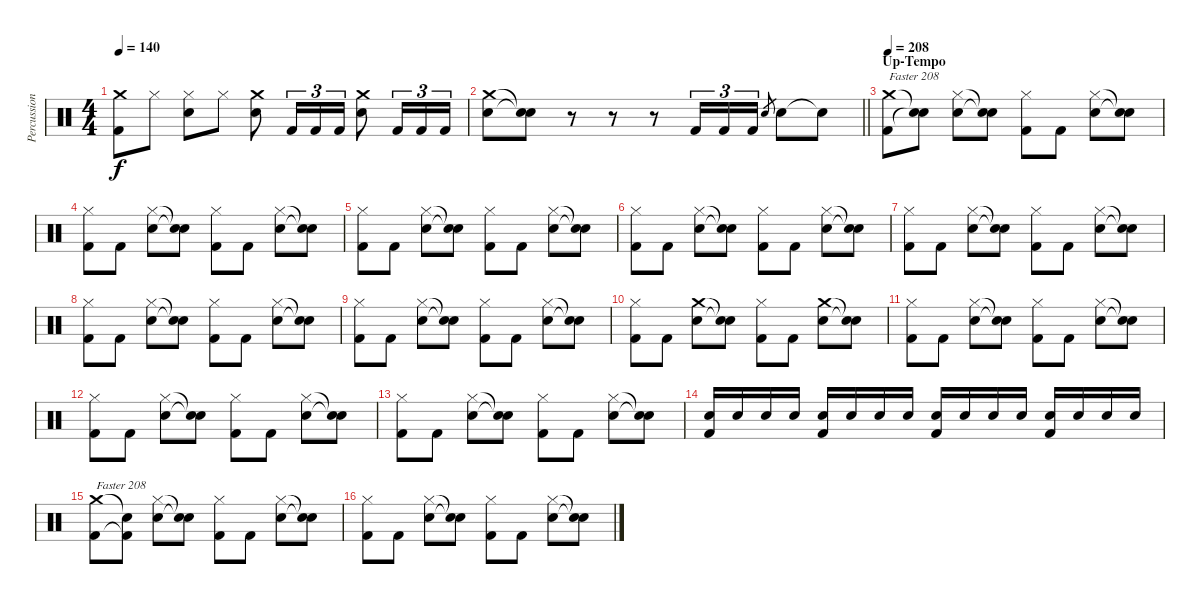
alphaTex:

\track ("Percussion" "Percussion") {instrument percussion}
\staff {score}
\articulation defaults
\ts (4 4)
\tempo 140
\clef neutral
\ks c
("Crash medium (hit)" "Kick (hit) 2").8{dy f} "Hi-Hat (closed)".8 ("Hi-Hat (closed)" "Snare (hit) 2").8 "Hi-Hat (closed)".8 ("Crash medium (hit)" "Snare (hit) 2").8 "Kick (hit) 2".16{tu (3 2)} "Kick (hit) 2".16{tu (3 2)} "Kick (hit) 2".16{tu (3 2)} ("Crash medium (hit)" "Snare (hit) 2").8 "Kick (hit) 2".16{tu (3 2)} "Kick (hit) 2".16{tu (3 2)} "Kick (hit) 2".16{tu (3 2)} |
\barLineRight lightlight
("Crash medium (hit)" "Snare (hit) 2").8 ("Snare (hit)"{t} "Snare (hit)"{t}).8 r.8 r.8 r.8 "Kick (hit) 2".16{tu (3 2)} "Kick (hit) 2".16{tu (3 2)} "Kick (hit) 2".16{tu (3 2)} "Snare (hit) 2".8{gr} "Snare (hit) 2".8 "Snare (hit)"{t}.8 |
\section ("" "Up-Tempo")
\tempo 208
("Crash medium (hit)" "Kick (hit) 2").8{txt "Faster 208"} ("Snare (hit)"{t} "Snare (hit)"{t}).8 ("Hi-Hat (closed)" "Snare (hit) 2").8 ("Snare (hit)"{t} "Snare (hit)"{t}).8 ("Hi-Hat (closed)" "Kick (hit) 2").8 "Kick (hit) 2".8 ("Hi-Hat (closed)" "Snare (hit) 2").8 ("Snare (hit)"{t} "Snare (hit)"{t}).8 |
("Hi-Hat (closed)" "Kick (hit) 2").8 "Kick (hit) 2".8 ("Hi-Hat (closed)" "Snare (hit) 2").8 ("Snare (hit)"{t} "Snare (hit)"{t}).8 ("Hi-Hat (closed)" "Kick (hit) 2").8 "Kick (hit) 2".8 ("Hi-Hat (closed)" "Snare (hit) 2").8 ("Snare (hit)"{t} "Snare (hit)"{t}).8 |
("Hi-Hat (closed)" "Kick (hit) 2").8 "Kick (hit) 2".8 ("Hi-Hat (closed)" "Snare (hit) 2").8 ("Snare (hit)"{t} "Snare (hit)"{t}).8 ("Hi-Hat (closed)" "Kick (hit) 2").8 "Kick (hit) 2".8 ("Hi-Hat (closed)" "Snare (hit) 2").8 ("Snare (hit)"{t} "Snare (hit)"{t}).8 |
("Hi-Hat (closed)" "Kick (hit) 2").8 "Kick (hit) 2".8 ("Hi-Hat (closed)" "Snare (hit) 2").8 ("Snare (hit)"{t} "Snare (hit)"{t}).8 ("Hi-Hat (closed)" "Kick (hit) 2").8 "Kick (hit) 2".8 ("Hi-Hat (closed)" "Snare (hit) 2").8 ("Snare (hit)"{t} "Snare (hit)"{t}).8 |
("Hi-Hat (closed)" "Kick (hit) 2").8 "Kick (hit) 2".8 ("Hi-Hat (closed)" "Snare (hit) 2").8 ("Snare (hit)"{t} "Snare (hit)"{t}).8 ("Hi-Hat (closed)" "Kick (hit) 2").8 "Kick (hit) 2".8 ("Hi-Hat (closed)" "Snare (hit) 2").8 ("Snare (hit)"{t} "Snare (hit)"{t}).8 |
("Hi-Hat (closed)" "Kick (hit) 2").8 "Kick (hit) 2".8 ("Hi-Hat (closed)" "Snare (hit) 2").8 ("Snare (hit)"{t} "Snare (hit)"{t}).8 ("Hi-Hat (closed)" "Kick (hit) 2").8 "Kick (hit) 2".8 ("Hi-Hat (closed)" "Snare (hit) 2").8 ("Snare (hit)"{t} "Snare (hit)"{t}).8 |
("Hi-Hat (closed)" "Kick (hit) 2").8 "Kick (hit) 2".8 ("Hi-Hat (closed)" "Snare (hit) 2").8 ("Snare (hit)"{t} "Snare (hit)"{t}).8 ("Hi-Hat (closed)" "Kick (hit) 2").8 "Kick (hit) 2".8 ("Hi-Hat (closed)" "Snare (hit) 2").8 ("Snare (hit)"{t} "Snare (hit)"{t}).8 |
("Hi-Hat (closed)" "Kick (hit) 2").8 "Kick (hit) 2".8 ("Crash medium (hit)" "Snare (hit) 2").8 ("Snare (hit)"{t} "Snare (hit)"{t}).8 ("Hi-Hat (closed)" "Kick (hit) 2").8 "Kick (hit) 2".8 ("Crash medium (hit)" "Snare (hit) 2").8 ("Snare (hit)"{t} "Snare (hit)"{t}).8 |
("Hi-Hat (closed)" "Kick (hit) 2").8 "Kick (hit) 2".8 ("Hi-Hat (closed)" "Snare (hit) 2").8 ("Snare (hit)"{t} "Snare (hit)"{t}).8 ("Hi-Hat (closed)" "Kick (hit) 2").8 "Kick (hit) 2".8 ("Hi-Hat (closed)" "Snare (hit) 2").8 ("Snare (hit)"{t} "Snare (hit)"{t}).8 |
("Hi-Hat (closed)" "Kick (hit) 2").8 "Kick (hit) 2".8 ("Hi-Hat (closed)" "Snare (hit) 2").8 ("Snare (hit)"{t} "Snare (hit)"{t}).8 ("Hi-Hat (closed)" "Kick (hit) 2").8 "Kick (hit) 2".8 ("Hi-Hat (closed)" "Snare (hit) 2").8 ("Snare (hit)"{t} "Snare (hit)"{t}).8 |
("Hi-Hat (closed)" "Kick (hit) 2").8 "Kick (hit) 2".8 ("Hi-Hat (closed)" "Snare (hit) 2").8 ("Snare (hit)"{t} "Snare (hit)"{t}).8 ("Hi-Hat (closed)" "Kick (hit) 2").8 "Kick (hit) 2".8 ("Hi-Hat (closed)" "Snare (hit) 2").8 ("Snare (hit)"{t} "Snare (hit)"{t}).8 |
("Snare (hit) 2" "Kick (hit) 2").16 "Snare (hit) 2".16 "Snare (hit) 2".16 "Snare (hit) 2".16 ("Snare (hit) 2" "Kick (hit) 2").16 "Snare (hit) 2".16 "Snare (hit) 2".16 "Snare (hit) 2".16 ("Snare (hit) 2" "Kick (hit) 2").16 "Snare (hit) 2".16 "Snare (hit) 2".16 "Snare (hit) 2".16 ("Snare (hit) 2" "Kick (hit) 2").16 "Snare (hit) 2".16 "Snare (hit) 2".16 "Snare (hit) 2".16 |
("Crash medium (hit)" "Kick (hit) 2").8{txt "Faster 208"} ("Snare (hit)"{t} "Kick (hit) 2"{t}).8 ("Hi-Hat (closed)" "Snare (hit) 2").8 ("Snare (hit)"{t} "Snare (hit)"{t}).8 ("Hi-Hat (closed)" "Kick (hit) 2").8 "Kick (hit) 2".8 ("Hi-Hat (closed)" "Snare (hit) 2").8 ("Snare (hit)"{t} "Snare (hit)"{t}).8 |
("Hi-Hat (closed)" "Kick (hit) 2").8 "Kick (hit) 2".8 ("Hi-Hat (closed)" "Snare (hit) 2").8 ("Snare (hit)"{t} "Snare (hit)"{t}).8 ("Hi-Hat (closed)" "Kick (hit) 2").8 "Kick (hit) 2".8 ("Hi-Hat (closed)" "Snare (hit) 2").8 ("Snare (hit)"{t} "Snare (hit)"{t}).8
